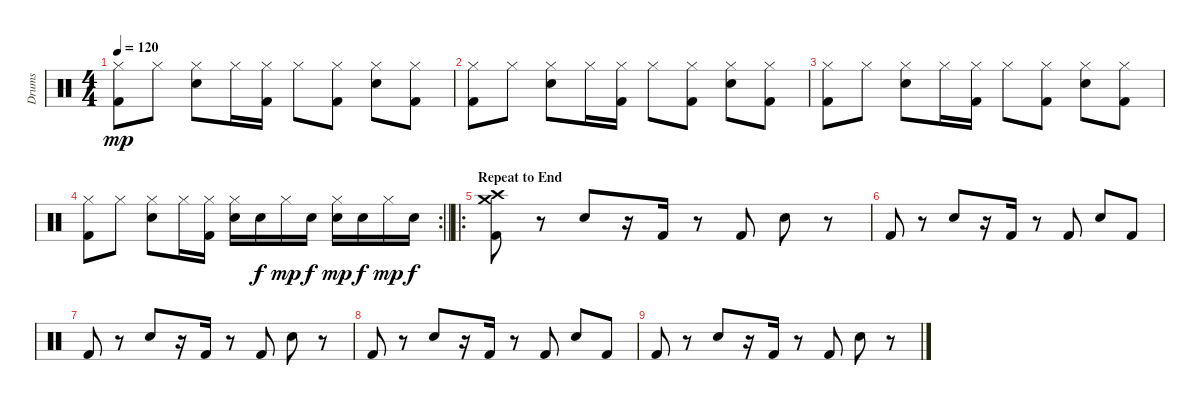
\track ("Drums" "Drums") {instrument percussion}
\staff {score}
\articulation defaults
\ts (4 4)
\tempo 120
\clef neutral
\ks c
("Hi-Hat (closed)" "Kick (hit) 2").8{dy mp} "Hi-Hat (closed)".8 ("Hi-Hat (closed)" "Electric Snare (hit)").8 "Hi-Hat (closed)".16 ("Hi-Hat (closed)" "Kick (hit) 2").16 "Hi-Hat (closed)".8 ("Hi-Hat (closed)" "Kick (hit) 2").8 ("Hi-Hat (closed)" "Electric Snare (hit)").8 ("Hi-Hat (closed)" "Kick (hit) 2").8 |
("Hi-Hat (closed)" "Kick (hit) 2").8 "Hi-Hat (closed)".8 ("Hi-Hat (closed)" "Electric Snare (hit)").8 "Hi-Hat (closed)".16 ("Hi-Hat (closed)" "Kick (hit) 2").16 "Hi-Hat (closed)".8 ("Hi-Hat (closed)" "Kick (hit) 2").8 ("Hi-Hat (closed)" "Electric Snare (hit)").8 ("Hi-Hat (closed)" "Kick (hit) 2").8 |
("Hi-Hat (closed)" "Kick (hit) 2").8 "Hi-Hat (closed)".8 ("Hi-Hat (closed)" "Electric Snare (hit)").8 "Hi-Hat (closed)".16 ("Hi-Hat (closed)" "Kick (hit) 2").16 "Hi-Hat (closed)".8 ("Hi-Hat (closed)" "Kick (hit) 2").8 ("Hi-Hat (closed)" "Electric Snare (hit)").8 ("Hi-Hat (closed)" "Kick (hit) 2").8 |
\rc 2
\barLineRight lightlight
("Hi-Hat (closed)" "Kick (hit) 2").8 "Hi-Hat (closed)".8 ("Hi-Hat (closed)" "Electric Snare (hit)").8 "Hi-Hat (closed)".16 ("Hi-Hat (closed)" "Kick (hit) 2").16 ("Hi-Hat (closed)" "Electric Snare (hit)").16 "Electric Snare (hit)".16{dy f} "Hi-Hat (closed)".16{dy mp} "Electric Snare (hit)".16{dy f} ("Hi-Hat (closed)" "Electric Snare (hit)").16{dy mp} "Electric Snare (hit)".16{dy f} "Hi-Hat (closed)".16{dy mp} "Electric Snare (hit)".16{dy f} |
\ro
\section ("" "Repeat to End")
("Crash high (hit)" "Crash medium (hit)" "Kick (hit) 2").8 r.8 "Electric Snare (hit)".8 r.16 "Kick (hit) 2".16 r.8 "Kick (hit) 2".8 "Electric Snare (hit)".8 r.8 |
"Kick (hit) 2".8 r.8 "Electric Snare (hit)".8 r.16 "Kick (hit) 2".16 r.8 "Kick (hit) 2".8 "Electric Snare (hit)".8 "Kick (hit) 2".8 |
"Kick (hit) 2".8 r.8 "Electric Snare (hit)".8 r.16 "Kick (hit) 2".16 r.8 "Kick (hit) 2".8 "Electric Snare (hit)".8 r.8 |
"Kick (hit) 2".8 r.8 "Electric Snare (hit)".8 r.16 "Kick (hit) 2".16 r.8 "Kick (hit) 2".8 "Electric Snare (hit)".8 "Kick (hit) 2".8 |
"Kick (hit) 2".8 r.8 "Electric Snare (hit)".8 r.16 "Kick (hit) 2".16 r.8 "Kick (hit) 2".8 "Electric Snare (hit)".8 r.8
